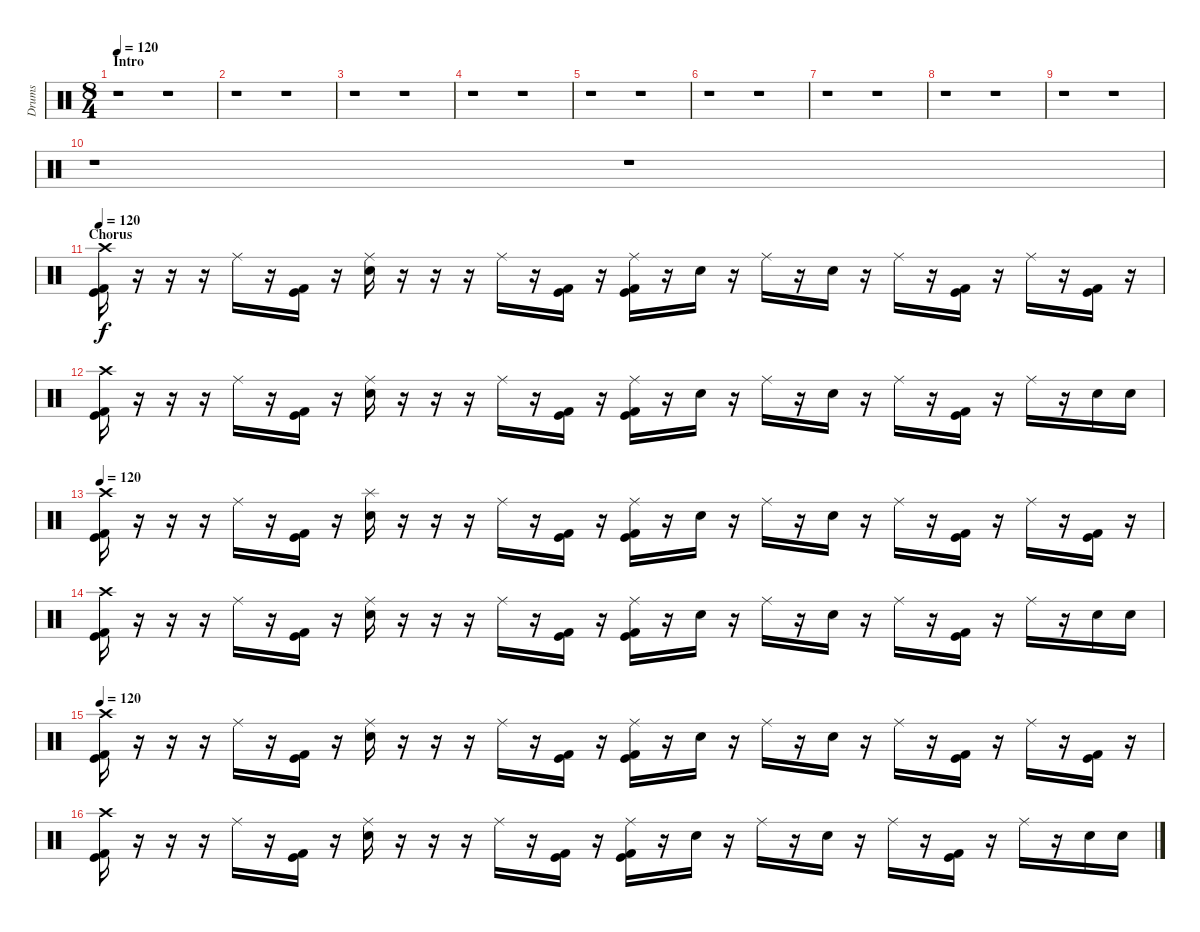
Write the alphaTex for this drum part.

\track ("Drums" "Drums") {instrument percussion}
\staff {score}
\articulation defaults
\ts (8 4)
\section ("" "Intro")
\tempo 120
\tempo 110
\tempo 120
\clef neutral
\ks c
r.1{dy f} r.1 |
r.1 r.1 |
r.1 r.1 |
r.1 r.1 |
r.1 r.1 |
r.1 r.1 |
r.1 r.1 |
r.1 r.1 |
r.1 r.1 |
r.1 r.1 |
\section ("" "Chorus")
\tempo 120
("Crash high (hit)" "Kick (hit)" "Kick (hit) 2").16 r.16 r.16 r.16 "Ride (middle)".16 r.16 ("Kick (hit) 2" "Kick (hit)").16 r.16 ("Ride (middle)" "Electric Snare (hit)").16 r.16 r.16 r.16 "Ride (middle)".16 r.16 ("Kick (hit) 2" "Kick (hit)").16 r.16 ("Ride (middle)" "Kick (hit) 2" "Kick (hit)").16 r.16 "Electric Snare (hit)".16 r.16 "Ride (middle)".16 r.16 "Electric Snare (hit)".16 r.16 "Ride (middle)".16 r.16 ("Kick (hit) 2" "Kick (hit)").16 r.16 "Ride (middle)".16 r.16 ("Kick (hit) 2" "Kick (hit)").16 r.16 |
("Crash high (hit)" "Kick (hit)" "Kick (hit) 2").16 r.16 r.16 r.16 "Ride (middle)".16 r.16 ("Kick (hit) 2" "Kick (hit)").16 r.16 ("Ride (middle)" "Electric Snare (hit)").16 r.16 r.16 r.16 "Ride (middle)".16 r.16 ("Kick (hit) 2" "Kick (hit)").16 r.16 ("Ride (middle)" "Kick (hit) 2" "Kick (hit)").16 r.16 "Electric Snare (hit)".16 r.16 "Ride (middle)".16 r.16 "Electric Snare (hit)".16 r.16 "Ride (middle)".16 r.16 ("Kick (hit) 2" "Kick (hit)").16 r.16 "Ride (middle)".16 r.16 "Electric Snare (hit)".16 "Electric Snare (hit)".16 |
\tempo 120
("Crash high (hit)" "Kick (hit)" "Kick (hit) 2").16 r.16 r.16 r.16 "Ride (middle)".16 r.16 ("Kick (hit) 2" "Kick (hit)").16 r.16 ("Splash (hit)" "Electric Snare (hit)").16 r.16 r.16 r.16 "Ride (middle)".16 r.16 ("Kick (hit) 2" "Kick (hit)").16 r.16 ("Ride (middle)" "Kick (hit) 2" "Kick (hit)").16 r.16 "Electric Snare (hit)".16 r.16 "Ride (middle)".16 r.16 "Electric Snare (hit)".16 r.16 "Ride (middle)".16 r.16 ("Kick (hit) 2" "Kick (hit)").16 r.16 "Ride (middle)".16 r.16 ("Kick (hit) 2" "Kick (hit)").16 r.16 |
("Crash high (hit)" "Kick (hit)" "Kick (hit) 2").16 r.16 r.16 r.16 "Ride (middle)".16 r.16 ("Kick (hit) 2" "Kick (hit)").16 r.16 ("Ride (middle)" "Electric Snare (hit)").16 r.16 r.16 r.16 "Ride (middle)".16 r.16 ("Kick (hit) 2" "Kick (hit)").16 r.16 ("Ride (middle)" "Kick (hit) 2" "Kick (hit)").16 r.16 "Electric Snare (hit)".16 r.16 "Ride (middle)".16 r.16 "Electric Snare (hit)".16 r.16 "Ride (middle)".16 r.16 ("Kick (hit) 2" "Kick (hit)").16 r.16 "Ride (middle)".16 r.16 "Electric Snare (hit)".16 "Electric Snare (hit)".16 |
\tempo 120
("Crash high (hit)" "Kick (hit)" "Kick (hit) 2").16 r.16 r.16 r.16 "Ride (middle)".16 r.16 ("Kick (hit) 2" "Kick (hit)").16 r.16 ("Ride (middle)" "Electric Snare (hit)").16 r.16 r.16 r.16 "Ride (middle)".16 r.16 ("Kick (hit) 2" "Kick (hit)").16 r.16 ("Ride (middle)" "Kick (hit) 2" "Kick (hit)").16 r.16 "Electric Snare (hit)".16 r.16 "Ride (middle)".16 r.16 "Electric Snare (hit)".16 r.16 "Ride (middle)".16 r.16 ("Kick (hit) 2" "Kick (hit)").16 r.16 "Ride (middle)".16 r.16 ("Kick (hit) 2" "Kick (hit)").16 r.16 |
("Crash high (hit)" "Kick (hit)" "Kick (hit) 2").16 r.16 r.16 r.16 "Ride (middle)".16 r.16 ("Kick (hit) 2" "Kick (hit)").16 r.16 ("Ride (middle)" "Electric Snare (hit)").16 r.16 r.16 r.16 "Ride (middle)".16 r.16 ("Kick (hit) 2" "Kick (hit)").16 r.16 ("Ride (middle)" "Kick (hit) 2" "Kick (hit)").16 r.16 "Electric Snare (hit)".16 r.16 "Ride (middle)".16 r.16 "Electric Snare (hit)".16 r.16 "Ride (middle)".16 r.16 ("Kick (hit) 2" "Kick (hit)").16 r.16 "Ride (middle)".16 r.16 "Electric Snare (hit)".16 "Electric Snare (hit)".16
